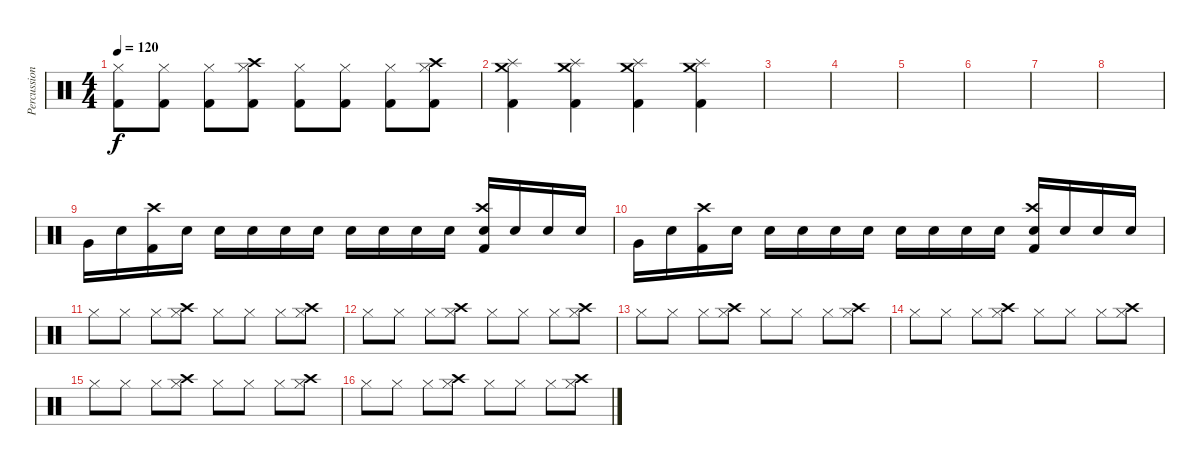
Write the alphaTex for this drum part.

\track ("Percussion" "Percussion") {instrument percussion}
\staff {score}
\articulation defaults
\ts (4 4)
\tempo 120
\clef neutral
\ks c
("Kick (hit) 2" "Hi-Hat (closed)").8{dy f} ("Kick (hit) 2" "Hi-Hat (closed)").8 ("Kick (hit) 2" "Hi-Hat (closed)").8 ("Kick (hit) 2" "Crash high (hit)" "Hi-Hat (closed)").8 ("Kick (hit) 2" "Hi-Hat (closed)").8 ("Kick (hit) 2" "Hi-Hat (closed)").8 ("Kick (hit) 2" "Hi-Hat (closed)").8 ("Kick (hit) 2" "Crash high (hit)" "Hi-Hat (closed)").8 |
("Kick (hit) 2" "Crash medium (hit)" "Splash (hit)").4 ("Kick (hit) 2" "Crash medium (hit)" "Splash (hit)").4 ("Kick (hit) 2" "Crash medium (hit)" "Splash (hit)").4 ("Kick (hit) 2" "Crash medium (hit)" "Splash (hit)").4 |
|
|
|
|
|
|
"Very Low Tom (hit)".16 "Electric Snare (hit)".16 ("Kick (hit) 2" "Crash high (hit)").16 "Electric Snare (hit)".16 "Electric Snare (hit)".16 "Electric Snare (hit)".16 "Electric Snare (hit)".16 "Electric Snare (hit)".16 "Electric Snare (hit)".16 "Electric Snare (hit)".16 "Electric Snare (hit)".16 "Electric Snare (hit)".16 ("Crash high (hit)" "Kick (hit) 2" "Electric Snare (hit)").16 "Electric Snare (hit)".16 "Electric Snare (hit)".16 "Electric Snare (hit)".16 |
"Very Low Tom (hit)".16 "Electric Snare (hit)".16 ("Kick (hit) 2" "Crash high (hit)").16 "Electric Snare (hit)".16 "Electric Snare (hit)".16 "Electric Snare (hit)".16 "Electric Snare (hit)".16 "Electric Snare (hit)".16 "Electric Snare (hit)".16 "Electric Snare (hit)".16 "Electric Snare (hit)".16 "Electric Snare (hit)".16 ("Crash high (hit)" "Kick (hit) 2" "Electric Snare (hit)").16 "Electric Snare (hit)".16 "Electric Snare (hit)".16 "Electric Snare (hit)".16 |
"Hi-Hat (closed)".8 "Hi-Hat (closed)".8 "Hi-Hat (closed)".8 ("Crash high (hit)" "Hi-Hat (closed)").8 "Hi-Hat (closed)".8 "Hi-Hat (closed)".8 "Hi-Hat (closed)".8 ("Crash high (hit)" "Hi-Hat (closed)").8 |
"Hi-Hat (closed)".8 "Hi-Hat (closed)".8 "Hi-Hat (closed)".8 ("Crash high (hit)" "Hi-Hat (closed)").8 "Hi-Hat (closed)".8 "Hi-Hat (closed)".8 "Hi-Hat (closed)".8 ("Crash high (hit)" "Hi-Hat (closed)").8 |
"Hi-Hat (closed)".8 "Hi-Hat (closed)".8 "Hi-Hat (closed)".8 ("Crash high (hit)" "Hi-Hat (closed)").8 "Hi-Hat (closed)".8 "Hi-Hat (closed)".8 "Hi-Hat (closed)".8 ("Crash high (hit)" "Hi-Hat (closed)").8 |
"Hi-Hat (closed)".8 "Hi-Hat (closed)".8 "Hi-Hat (closed)".8 ("Crash high (hit)" "Hi-Hat (closed)").8 "Hi-Hat (closed)".8 "Hi-Hat (closed)".8 "Hi-Hat (closed)".8 ("Crash high (hit)" "Hi-Hat (closed)").8 |
"Hi-Hat (closed)".8 "Hi-Hat (closed)".8 "Hi-Hat (closed)".8 ("Crash high (hit)" "Hi-Hat (closed)").8 "Hi-Hat (closed)".8 "Hi-Hat (closed)".8 "Hi-Hat (closed)".8 ("Crash high (hit)" "Hi-Hat (closed)").8 |
"Hi-Hat (closed)".8 "Hi-Hat (closed)".8 "Hi-Hat (closed)".8 ("Crash high (hit)" "Hi-Hat (closed)").8 "Hi-Hat (closed)".8 "Hi-Hat (closed)".8 "Hi-Hat (closed)".8 ("Crash high (hit)" "Hi-Hat (closed)").8
